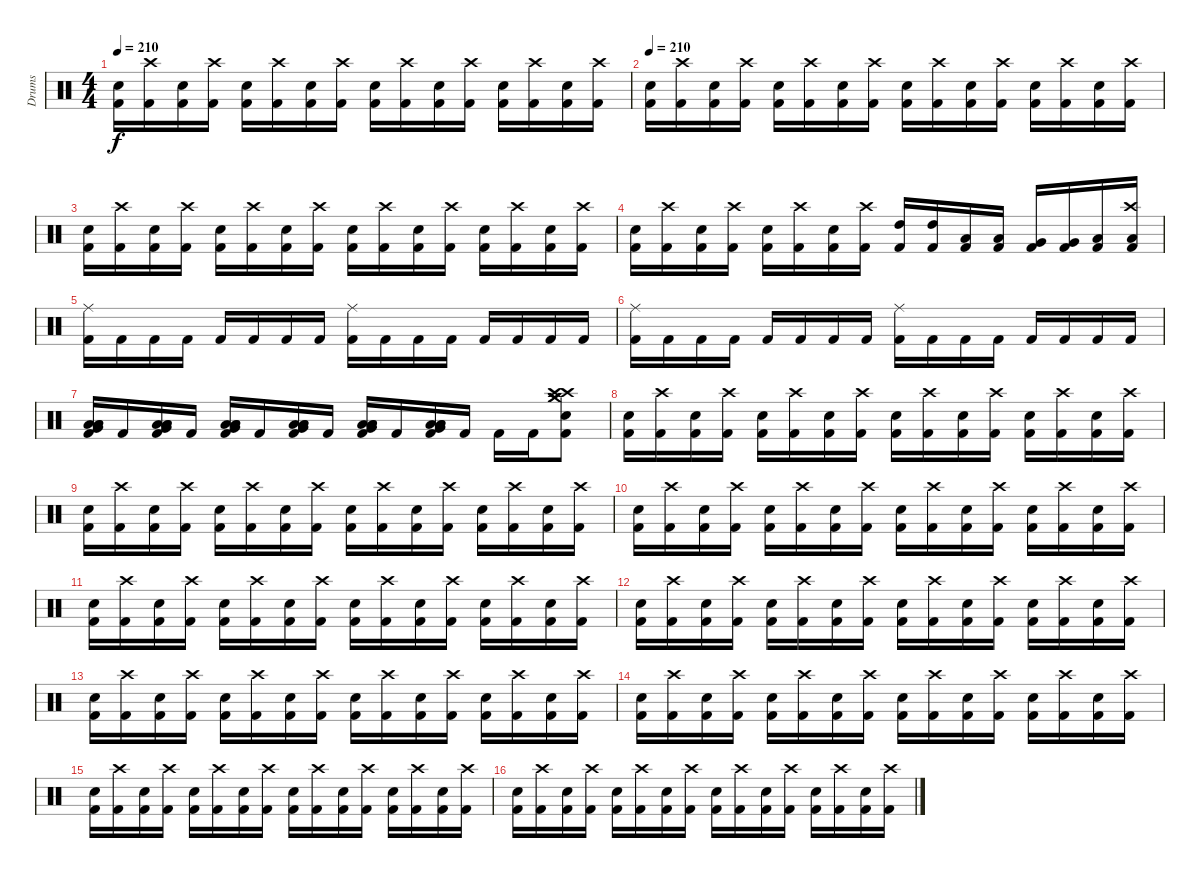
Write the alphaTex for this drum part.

\track ("Drums" "Drums") {instrument percussion}
\staff {score}
\articulation defaults
\ts (4 4)
\tempo 210
\clef neutral
\ks c
("Snare (hit) 2" "Kick (hit) 2").16{dy f} ("Crash high (hit)" "Kick (hit) 2").16 ("Snare (hit) 2" "Kick (hit) 2").16 ("Crash high (hit)" "Kick (hit) 2").16 ("Snare (hit) 2" "Kick (hit) 2").16 ("Crash high (hit)" "Kick (hit) 2").16 ("Snare (hit) 2" "Kick (hit) 2").16 ("Crash high (hit)" "Kick (hit) 2").16 ("Snare (hit) 2" "Kick (hit) 2").16 ("Crash high (hit)" "Kick (hit) 2").16 ("Snare (hit) 2" "Kick (hit) 2").16 ("Crash high (hit)" "Kick (hit) 2").16 ("Snare (hit) 2" "Kick (hit) 2").16 ("Crash high (hit)" "Kick (hit) 2").16 ("Snare (hit) 2" "Kick (hit) 2").16 ("Crash high (hit)" "Kick (hit) 2").16 |
\tempo 210
("Snare (hit) 2" "Kick (hit) 2").16 ("Crash high (hit)" "Kick (hit) 2").16 ("Snare (hit) 2" "Kick (hit) 2").16 ("Crash high (hit)" "Kick (hit) 2").16 ("Snare (hit) 2" "Kick (hit) 2").16 ("Crash high (hit)" "Kick (hit) 2").16 ("Snare (hit) 2" "Kick (hit) 2").16 ("Crash high (hit)" "Kick (hit) 2").16 ("Snare (hit) 2" "Kick (hit) 2").16 ("Crash high (hit)" "Kick (hit) 2").16 ("Snare (hit) 2" "Kick (hit) 2").16 ("Crash high (hit)" "Kick (hit) 2").16 ("Snare (hit) 2" "Kick (hit) 2").16 ("Crash high (hit)" "Kick (hit) 2").16 ("Snare (hit) 2" "Kick (hit) 2").16 ("Crash high (hit)" "Kick (hit) 2").16 |
("Snare (hit) 2" "Kick (hit) 2").16 ("Crash high (hit)" "Kick (hit) 2").16 ("Snare (hit) 2" "Kick (hit) 2").16 ("Crash high (hit)" "Kick (hit) 2").16 ("Snare (hit) 2" "Kick (hit) 2").16 ("Crash high (hit)" "Kick (hit) 2").16 ("Snare (hit) 2" "Kick (hit) 2").16 ("Crash high (hit)" "Kick (hit) 2").16 ("Snare (hit) 2" "Kick (hit) 2").16 ("Crash high (hit)" "Kick (hit) 2").16 ("Snare (hit) 2" "Kick (hit) 2").16 ("Crash high (hit)" "Kick (hit) 2").16 ("Snare (hit) 2" "Kick (hit) 2").16 ("Crash high (hit)" "Kick (hit) 2").16 ("Snare (hit) 2" "Kick (hit) 2").16 ("Crash high (hit)" "Kick (hit) 2").16 |
("Snare (hit) 2" "Kick (hit) 2").16 ("Crash high (hit)" "Kick (hit) 2").16 ("Snare (hit) 2" "Kick (hit) 2").16 ("Crash high (hit)" "Kick (hit) 2").16 ("Snare (hit) 2" "Kick (hit) 2").16 ("Crash high (hit)" "Kick (hit) 2").16 ("Snare (hit) 2" "Kick (hit) 2").16 ("Crash high (hit)" "Kick (hit) 2").16 ("High Tom (hit)" "Kick (hit) 2").16 ("High Tom (hit)" "Kick (hit) 2").16 ("Low Tom (hit)" "Kick (hit) 2").16 ("Low Tom (hit)" "Kick (hit) 2").16 ("Very Low Tom (hit)" "Kick (hit) 2").16 ("Very Low Tom (hit)" "Kick (hit) 2").16 ("Low Floor Tom (hit)" "Kick (hit) 2").16 ("Crash high (hit)" "Low Floor Tom (hit)" "Kick (hit) 2").16 |
("Ride (middle)" "Kick (hit) 2").16 "Kick (hit) 2".16 "Kick (hit) 2".16 "Kick (hit) 2".16 "Kick (hit) 2".16 "Kick (hit) 2".16 "Kick (hit) 2".16 "Kick (hit) 2".16 ("Ride (middle)" "Kick (hit) 2").16 "Kick (hit) 2".16 "Kick (hit) 2".16 "Kick (hit) 2".16 "Kick (hit) 2".16 "Kick (hit) 2".16 "Kick (hit) 2".16 "Kick (hit) 2".16 |
("Ride (middle)" "Kick (hit) 2").16 "Kick (hit) 2".16 "Kick (hit) 2".16 "Kick (hit) 2".16 "Kick (hit) 2".16 "Kick (hit) 2".16 "Kick (hit) 2".16 "Kick (hit) 2".16 ("Ride (middle)" "Kick (hit) 2").16 "Kick (hit) 2".16 "Kick (hit) 2".16 "Kick (hit) 2".16 "Kick (hit) 2".16 "Kick (hit) 2".16 "Kick (hit) 2".16 "Kick (hit) 2".16 |
("Low Tom (hit)" "Very Low Tom (hit)" "Low Floor Tom (hit)" "Low Floor Tom (hit)" "Kick (hit) 2").16 "Kick (hit) 2".16 ("Low Tom (hit)" "Very Low Tom (hit)" "Low Floor Tom (hit)" "Low Floor Tom (hit)" "Kick (hit) 2").16 "Kick (hit) 2".16 ("Low Tom (hit)" "Very Low Tom (hit)" "Low Floor Tom (hit)" "Low Floor Tom (hit)" "Kick (hit) 2").16 "Kick (hit) 2".16 ("Low Tom (hit)" "Very Low Tom (hit)" "Low Floor Tom (hit)" "Low Floor Tom (hit)" "Kick (hit) 2").16 "Kick (hit) 2".16 ("Low Tom (hit)" "Very Low Tom (hit)" "Low Floor Tom (hit)" "Low Floor Tom (hit)" "Kick (hit) 2").16 "Kick (hit) 2".16 ("Low Tom (hit)" "Very Low Tom (hit)" "Low Floor Tom (hit)" "Low Floor Tom (hit)" "Kick (hit) 2").16 "Kick (hit) 2".16 "Kick (hit) 2".16 "Kick (hit) 2".16 ("Crash medium (hit)" "Crash high (hit)" "Crash medium (hit)" "Crash high (hit)" "Snare (hit) 2" "Kick (hit) 2").8 |
("Snare (hit) 2" "Kick (hit) 2").16 ("Crash high (hit)" "Kick (hit) 2").16 ("Snare (hit) 2" "Kick (hit) 2").16 ("Crash high (hit)" "Kick (hit) 2").16 ("Snare (hit) 2" "Kick (hit) 2").16 ("Crash high (hit)" "Kick (hit) 2").16 ("Snare (hit) 2" "Kick (hit) 2").16 ("Crash high (hit)" "Kick (hit) 2").16 ("Snare (hit) 2" "Kick (hit) 2").16 ("Crash high (hit)" "Kick (hit) 2").16 ("Snare (hit) 2" "Kick (hit) 2").16 ("Crash high (hit)" "Kick (hit) 2").16 ("Snare (hit) 2" "Kick (hit) 2").16 ("Crash high (hit)" "Kick (hit) 2").16 ("Snare (hit) 2" "Kick (hit) 2").16 ("Crash high (hit)" "Kick (hit) 2").16 |
("Snare (hit) 2" "Kick (hit) 2").16 ("Crash high (hit)" "Kick (hit) 2").16 ("Snare (hit) 2" "Kick (hit) 2").16 ("Crash high (hit)" "Kick (hit) 2").16 ("Snare (hit) 2" "Kick (hit) 2").16 ("Crash high (hit)" "Kick (hit) 2").16 ("Snare (hit) 2" "Kick (hit) 2").16 ("Crash high (hit)" "Kick (hit) 2").16 ("Snare (hit) 2" "Kick (hit) 2").16 ("Crash high (hit)" "Kick (hit) 2").16 ("Snare (hit) 2" "Kick (hit) 2").16 ("Crash high (hit)" "Kick (hit) 2").16 ("Snare (hit) 2" "Kick (hit) 2").16 ("Crash high (hit)" "Kick (hit) 2").16 ("Snare (hit) 2" "Kick (hit) 2").16 ("Crash high (hit)" "Kick (hit) 2").16 |
("Snare (hit) 2" "Kick (hit) 2").16 ("Crash high (hit)" "Kick (hit) 2").16 ("Snare (hit) 2" "Kick (hit) 2").16 ("Crash high (hit)" "Kick (hit) 2").16 ("Snare (hit) 2" "Kick (hit) 2").16 ("Crash high (hit)" "Kick (hit) 2").16 ("Snare (hit) 2" "Kick (hit) 2").16 ("Crash high (hit)" "Kick (hit) 2").16 ("Snare (hit) 2" "Kick (hit) 2").16 ("Crash high (hit)" "Kick (hit) 2").16 ("Snare (hit) 2" "Kick (hit) 2").16 ("Crash high (hit)" "Kick (hit) 2").16 ("Snare (hit) 2" "Kick (hit) 2").16 ("Crash high (hit)" "Kick (hit) 2").16 ("Snare (hit) 2" "Kick (hit) 2").16 ("Crash high (hit)" "Kick (hit) 2").16 |
("Snare (hit) 2" "Kick (hit) 2").16 ("Crash high (hit)" "Kick (hit) 2").16 ("Snare (hit) 2" "Kick (hit) 2").16 ("Crash high (hit)" "Kick (hit) 2").16 ("Snare (hit) 2" "Kick (hit) 2").16 ("Crash high (hit)" "Kick (hit) 2").16 ("Snare (hit) 2" "Kick (hit) 2").16 ("Crash high (hit)" "Kick (hit) 2").16 ("Snare (hit) 2" "Kick (hit) 2").16 ("Crash high (hit)" "Kick (hit) 2").16 ("Snare (hit) 2" "Kick (hit) 2").16 ("Crash high (hit)" "Kick (hit) 2").16 ("Snare (hit) 2" "Kick (hit) 2").16 ("Crash high (hit)" "Kick (hit) 2").16 ("Snare (hit) 2" "Kick (hit) 2").16 ("Crash high (hit)" "Kick (hit) 2").16 |
("Snare (hit) 2" "Kick (hit) 2").16 ("Crash high (hit)" "Kick (hit) 2").16 ("Snare (hit) 2" "Kick (hit) 2").16 ("Crash high (hit)" "Kick (hit) 2").16 ("Snare (hit) 2" "Kick (hit) 2").16 ("Crash high (hit)" "Kick (hit) 2").16 ("Snare (hit) 2" "Kick (hit) 2").16 ("Crash high (hit)" "Kick (hit) 2").16 ("Snare (hit) 2" "Kick (hit) 2").16 ("Crash high (hit)" "Kick (hit) 2").16 ("Snare (hit) 2" "Kick (hit) 2").16 ("Crash high (hit)" "Kick (hit) 2").16 ("Snare (hit) 2" "Kick (hit) 2").16 ("Crash high (hit)" "Kick (hit) 2").16 ("Snare (hit) 2" "Kick (hit) 2").16 ("Crash high (hit)" "Kick (hit) 2").16 |
("Snare (hit) 2" "Kick (hit) 2").16 ("Crash high (hit)" "Kick (hit) 2").16 ("Snare (hit) 2" "Kick (hit) 2").16 ("Crash high (hit)" "Kick (hit) 2").16 ("Snare (hit) 2" "Kick (hit) 2").16 ("Crash high (hit)" "Kick (hit) 2").16 ("Snare (hit) 2" "Kick (hit) 2").16 ("Crash high (hit)" "Kick (hit) 2").16 ("Snare (hit) 2" "Kick (hit) 2").16 ("Crash high (hit)" "Kick (hit) 2").16 ("Snare (hit) 2" "Kick (hit) 2").16 ("Crash high (hit)" "Kick (hit) 2").16 ("Snare (hit) 2" "Kick (hit) 2").16 ("Crash high (hit)" "Kick (hit) 2").16 ("Snare (hit) 2" "Kick (hit) 2").16 ("Crash high (hit)" "Kick (hit) 2").16 |
("Snare (hit) 2" "Kick (hit) 2").16 ("Crash high (hit)" "Kick (hit) 2").16 ("Snare (hit) 2" "Kick (hit) 2").16 ("Crash high (hit)" "Kick (hit) 2").16 ("Snare (hit) 2" "Kick (hit) 2").16 ("Crash high (hit)" "Kick (hit) 2").16 ("Snare (hit) 2" "Kick (hit) 2").16 ("Crash high (hit)" "Kick (hit) 2").16 ("Snare (hit) 2" "Kick (hit) 2").16 ("Crash high (hit)" "Kick (hit) 2").16 ("Snare (hit) 2" "Kick (hit) 2").16 ("Crash high (hit)" "Kick (hit) 2").16 ("Snare (hit) 2" "Kick (hit) 2").16 ("Crash high (hit)" "Kick (hit) 2").16 ("Snare (hit) 2" "Kick (hit) 2").16 ("Crash high (hit)" "Kick (hit) 2").16 |
("Snare (hit) 2" "Kick (hit) 2").16 ("Crash high (hit)" "Kick (hit) 2").16 ("Snare (hit) 2" "Kick (hit) 2").16 ("Crash high (hit)" "Kick (hit) 2").16 ("Snare (hit) 2" "Kick (hit) 2").16 ("Crash high (hit)" "Kick (hit) 2").16 ("Snare (hit) 2" "Kick (hit) 2").16 ("Crash high (hit)" "Kick (hit) 2").16 ("Snare (hit) 2" "Kick (hit) 2").16 ("Crash high (hit)" "Kick (hit) 2").16 ("Snare (hit) 2" "Kick (hit) 2").16 ("Crash high (hit)" "Kick (hit) 2").16 ("Snare (hit) 2" "Kick (hit) 2").16 ("Crash high (hit)" "Kick (hit) 2").16 ("Snare (hit) 2" "Kick (hit) 2").16 ("Crash high (hit)" "Kick (hit) 2").16 |
("Snare (hit) 2" "Kick (hit) 2").16 ("Crash high (hit)" "Kick (hit) 2").16 ("Snare (hit) 2" "Kick (hit) 2").16 ("Crash high (hit)" "Kick (hit) 2").16 ("Snare (hit) 2" "Kick (hit) 2").16 ("Crash high (hit)" "Kick (hit) 2").16 ("Snare (hit) 2" "Kick (hit) 2").16 ("Crash high (hit)" "Kick (hit) 2").16 ("Snare (hit) 2" "Kick (hit) 2").16 ("Crash high (hit)" "Kick (hit) 2").16 ("Snare (hit) 2" "Kick (hit) 2").16 ("Crash high (hit)" "Kick (hit) 2").16 ("Snare (hit) 2" "Kick (hit) 2").16 ("Crash high (hit)" "Kick (hit) 2").16 ("Snare (hit) 2" "Kick (hit) 2").16 ("Crash high (hit)" "Kick (hit) 2").16
